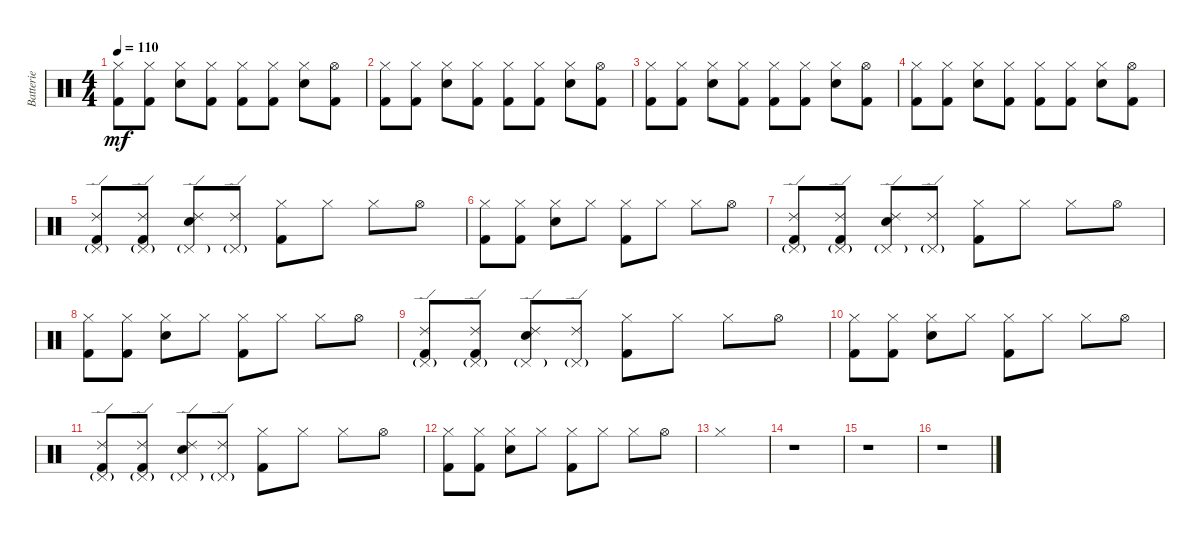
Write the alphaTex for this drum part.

\track ("Batterie" "Batterie") {instrument percussion}
\staff {score}
\articulation defaults
\ts (4 4)
\tempo 110
\clef neutral
\ks c
("Hi-Hat (closed)" "Kick (hit) 2").8{dy mf} ("Hi-Hat (closed)" "Kick (hit) 2").8 ("Hi-Hat (closed)" "Electric Snare (hit)").8 ("Hi-Hat (closed)" "Kick (hit) 2").8 ("Hi-Hat (closed)" "Kick (hit) 2").8 ("Hi-Hat (closed)" "Kick (hit) 2").8 ("Hi-Hat (closed)" "Electric Snare (hit)").8 ("Hi-Hat (open)" "Kick (hit) 2").8 |
("Hi-Hat (closed)" "Kick (hit) 2").8 ("Hi-Hat (closed)" "Kick (hit) 2").8 ("Hi-Hat (closed)" "Electric Snare (hit)").8 ("Hi-Hat (closed)" "Kick (hit) 2").8 ("Hi-Hat (closed)" "Kick (hit) 2").8 ("Hi-Hat (closed)" "Kick (hit) 2").8 ("Hi-Hat (closed)" "Electric Snare (hit)").8 ("Hi-Hat (open)" "Kick (hit) 2").8 |
("Hi-Hat (closed)" "Kick (hit) 2").8 ("Hi-Hat (closed)" "Kick (hit) 2").8 ("Hi-Hat (closed)" "Electric Snare (hit)").8 ("Hi-Hat (closed)" "Kick (hit) 2").8 ("Hi-Hat (closed)" "Kick (hit) 2").8 ("Hi-Hat (closed)" "Kick (hit) 2").8 ("Hi-Hat (closed)" "Electric Snare (hit)").8 ("Hi-Hat (open)" "Kick (hit) 2").8 |
("Hi-Hat (closed)" "Kick (hit) 2").8 ("Hi-Hat (closed)" "Kick (hit) 2").8 ("Hi-Hat (closed)" "Electric Snare (hit)").8 ("Hi-Hat (closed)" "Kick (hit) 2").8 ("Hi-Hat (closed)" "Kick (hit) 2").8 ("Hi-Hat (closed)" "Kick (hit) 2").8 ("Hi-Hat (closed)" "Electric Snare (hit)").8 ("Hi-Hat (open)" "Kick (hit) 2").8 |
("Pedal Hi-Hat (hit)"{g} "Ride (edge) 2" "Kick (hit) 2").8 ("Pedal Hi-Hat (hit)"{g} "Ride (edge) 2" "Kick (hit) 2").8 ("Pedal Hi-Hat (hit)"{g} "Ride (edge) 2" "Electric Snare (hit)").8 ("Pedal Hi-Hat (hit)"{g} "Ride (edge) 2").8 ("Hi-Hat (closed)" "Kick (hit) 2").8 "Hi-Hat (closed)".8 "Hi-Hat (closed)".8 "Hi-Hat (open)".8 |
("Hi-Hat (closed)" "Kick (hit) 2").8 ("Hi-Hat (closed)" "Kick (hit) 2").8 ("Hi-Hat (closed)" "Electric Snare (hit)").8 "Hi-Hat (closed)".8 ("Hi-Hat (closed)" "Kick (hit) 2").8 "Hi-Hat (closed)".8 "Hi-Hat (closed)".8 "Hi-Hat (open)".8 |
("Pedal Hi-Hat (hit)"{g} "Ride (edge) 2" "Kick (hit) 2").8 ("Pedal Hi-Hat (hit)"{g} "Ride (edge) 2" "Kick (hit) 2").8 ("Pedal Hi-Hat (hit)"{g} "Ride (edge) 2" "Electric Snare (hit)").8 ("Pedal Hi-Hat (hit)"{g} "Ride (edge) 2").8 ("Hi-Hat (closed)" "Kick (hit) 2").8 "Hi-Hat (closed)".8 "Hi-Hat (closed)".8 "Hi-Hat (open)".8 |
("Hi-Hat (closed)" "Kick (hit) 2").8 ("Hi-Hat (closed)" "Kick (hit) 2").8 ("Hi-Hat (closed)" "Electric Snare (hit)").8 "Hi-Hat (closed)".8 ("Hi-Hat (closed)" "Kick (hit) 2").8 "Hi-Hat (closed)".8 "Hi-Hat (closed)".8 "Hi-Hat (open)".8 |
("Pedal Hi-Hat (hit)"{g} "Ride (edge) 2" "Kick (hit) 2").8 ("Pedal Hi-Hat (hit)"{g} "Ride (edge) 2" "Kick (hit) 2").8 ("Pedal Hi-Hat (hit)"{g} "Ride (edge) 2" "Electric Snare (hit)").8 ("Pedal Hi-Hat (hit)"{g} "Ride (edge) 2").8 ("Hi-Hat (closed)" "Kick (hit) 2").8 "Hi-Hat (closed)".8 "Hi-Hat (closed)".8 "Hi-Hat (open)".8 |
("Hi-Hat (closed)" "Kick (hit) 2").8 ("Hi-Hat (closed)" "Kick (hit) 2").8 ("Hi-Hat (closed)" "Electric Snare (hit)").8 "Hi-Hat (closed)".8 ("Hi-Hat (closed)" "Kick (hit) 2").8 "Hi-Hat (closed)".8 "Hi-Hat (closed)".8 "Hi-Hat (open)".8 |
("Pedal Hi-Hat (hit)"{g} "Ride (edge) 2" "Kick (hit) 2").8 ("Pedal Hi-Hat (hit)"{g} "Ride (edge) 2" "Kick (hit) 2").8 ("Pedal Hi-Hat (hit)"{g} "Ride (edge) 2" "Electric Snare (hit)").8 ("Pedal Hi-Hat (hit)"{g} "Ride (edge) 2").8 ("Hi-Hat (closed)" "Kick (hit) 2").8 "Hi-Hat (closed)".8 "Hi-Hat (closed)".8 "Hi-Hat (open)".8 |
("Hi-Hat (closed)" "Kick (hit) 2").8 ("Hi-Hat (closed)" "Kick (hit) 2").8 ("Hi-Hat (closed)" "Electric Snare (hit)").8 "Hi-Hat (closed)".8 ("Hi-Hat (closed)" "Kick (hit) 2").8 "Hi-Hat (closed)".8 "Hi-Hat (closed)".8 "Hi-Hat (open)".8 |
"Hi-Hat (closed)".1 |
r.1 |
r.1 |
r.1
